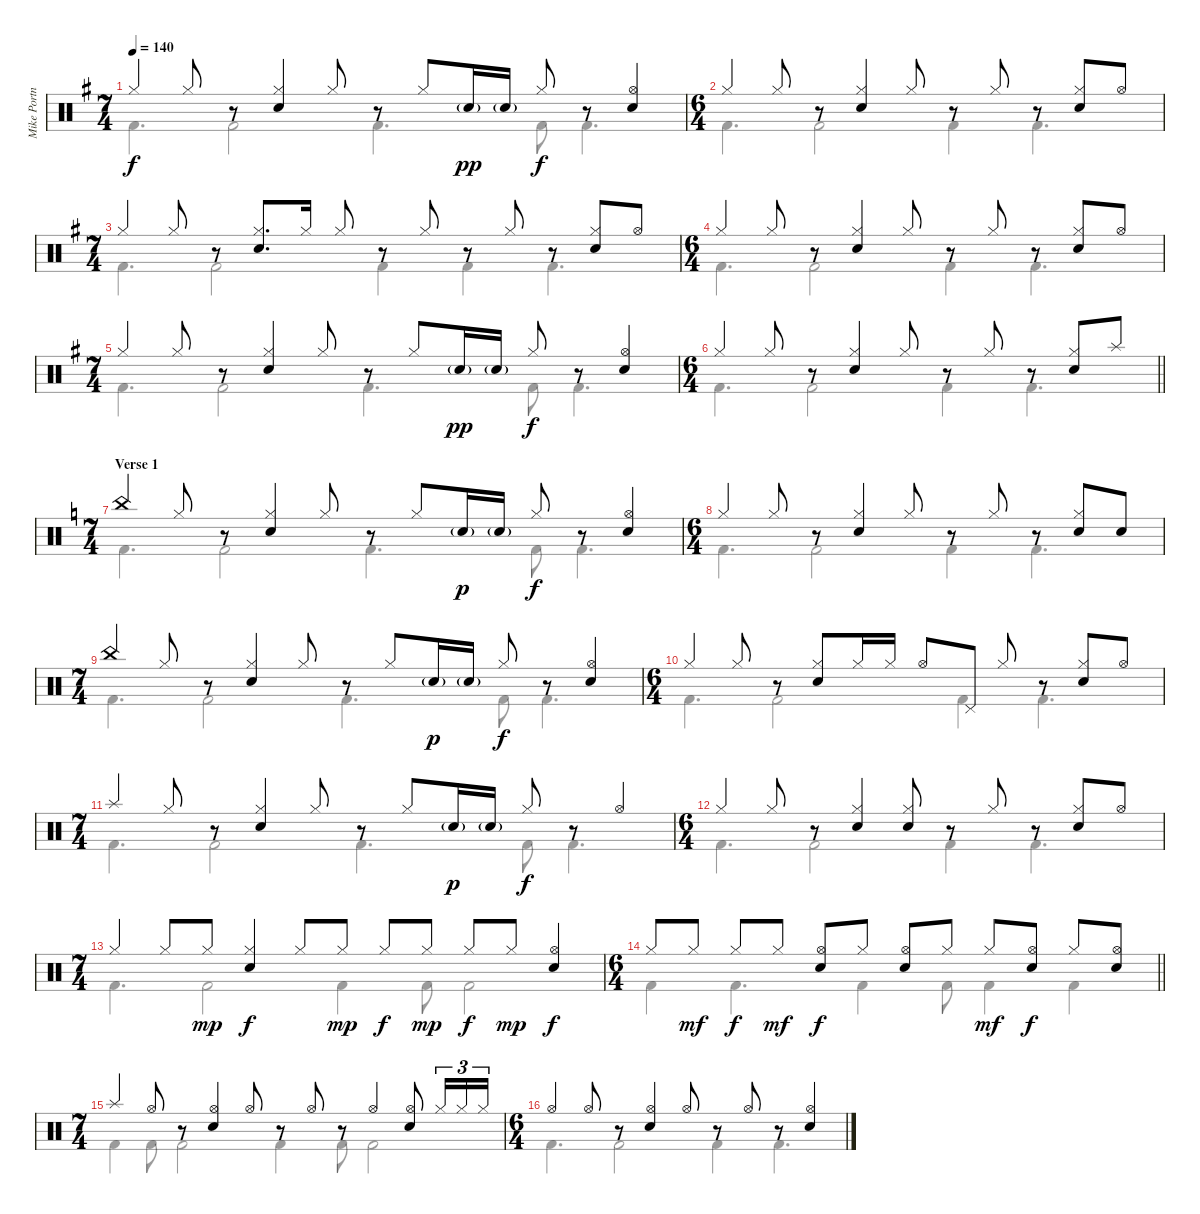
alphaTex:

\track ("Mike Portnoy - Drum" "Mike Portn") {instrument percussion}
\staff {score}
\articulation defaults
\voice
\ts (7 4)
\tempo 140
\clef neutral
\ks g "Hi-Hat (closed)".4{dy f} "Hi-Hat (closed)".8
r.8 ("Hi-Hat (closed)" "Electric Snare (hit)").4 "Hi-Hat (closed)".8 r.8 "Hi-Hat (closed)".8 "Electric Snare (hit)"{g}.16{dy pp} "Electric Snare (hit)"{g}.16 "Hi-Hat (closed)".8{dy f} r.8 ("Hi-Hat (open)" "Electric Snare (hit)").4 |
\ts (6 4)
"Hi-Hat (closed)".4 "Hi-Hat (closed)".8 r.8 ("Hi-Hat (closed)" "Electric Snare (hit)").4 "Hi-Hat (closed)".8 r.8 "Hi-Hat (closed)".8 r.8 ("Hi-Hat (closed)" "Electric Snare (hit)").8 "Hi-Hat (open)".8 |
\ts (7 4)
"Hi-Hat (closed)".4 "Hi-Hat (closed)".8 r.8 ("Hi-Hat (closed)" "Electric Snare (hit)").8{d} "Hi-Hat (closed)".16 "Hi-Hat (closed)".8 r.8 "Hi-Hat (closed)".8 r.8 "Hi-Hat (closed)".8 r.8 ("Hi-Hat (closed)" "Electric Snare (hit)").8 "Hi-Hat (open)".8 |
\ts (6 4)
"Hi-Hat (closed)".4 "Hi-Hat (closed)".8 r.8 ("Hi-Hat (closed)" "Electric Snare (hit)").4 "Hi-Hat (closed)".8 r.8 "Hi-Hat (closed)".8 r.8 ("Hi-Hat (closed)" "Electric Snare (hit)").8 "Hi-Hat (open)".8 |
\ts (7 4)
"Hi-Hat (closed)".4 "Hi-Hat (closed)".8 r.8 ("Hi-Hat (closed)" "Electric Snare (hit)").4 "Hi-Hat (closed)".8 r.8 "Hi-Hat (closed)".8 "Electric Snare (hit)"{g}.16{dy pp} "Electric Snare (hit)"{g}.16 "Hi-Hat (closed)".8{dy f} r.8 ("Hi-Hat (open)" "Electric Snare (hit)").4 |
\ts (6 4)
\barLineRight lightlight "Hi-Hat (closed)".4 "Hi-Hat (closed)".8
r.8 ("Hi-Hat (closed)" "Electric Snare (hit)").4 "Hi-Hat (closed)".8 r.8 "Hi-Hat (closed)".8 r.8 ("Hi-Hat (closed)" "Electric Snare (hit)").8 "Splash (hit)".8 |
\ts (7 4)
\section ("" "Verse 1")
\ks c "China (hit)".4 "Hi-Hat (closed)".8
r.8 ("Hi-Hat (closed)" "Electric Snare (hit)").4 "Hi-Hat (closed)".8 r.8 "Hi-Hat (closed)".8 "Electric Snare (hit)"{g}.16{dy p} "Electric Snare (hit)"{g}.16 "Hi-Hat (closed)".8{dy f} r.8 ("Hi-Hat (open)" "Electric Snare (hit)").4 |
\ts (6 4)
"Hi-Hat (closed)".4 "Hi-Hat (closed)".8 r.8 ("Hi-Hat (closed)" "Electric Snare (hit)").4 "Hi-Hat (closed)".8 r.8 "Hi-Hat (closed)".8 r.8 ("Hi-Hat (closed)" "Electric Snare (hit)").8 "Electric Snare (hit)".8 |
\ts (7 4)
"China (hit)".4 "Hi-Hat (closed)".8 r.8 ("Hi-Hat (closed)" "Electric Snare (hit)").4 "Hi-Hat (closed)".8 r.8 "Hi-Hat (closed)".8 "Electric Snare (hit)"{g}.16{dy p} "Electric Snare (hit)"{g}.16 "Hi-Hat (closed)".8{dy f} r.8 ("Hi-Hat (open)" "Electric Snare (hit)").4 |
\ts (6 4)
"Hi-Hat (closed)".4 "Hi-Hat (closed)".8 r.8 ("Hi-Hat (closed)" "Electric Snare (hit)").8 "Hi-Hat (closed)".16 "Hi-Hat (closed)".16 "Hi-Hat (open)".8 "Pedal Hi-Hat (hit)".8 "Hi-Hat (closed)".8 r.8 ("Hi-Hat (closed)" "Electric Snare (hit)").8 "Hi-Hat (open)".8 |
\ts (7 4)
"Splash (hit)".4 "Hi-Hat (closed)".8 r.8 ("Hi-Hat (closed)" "Electric Snare (hit)").4 "Hi-Hat (closed)".8 r.8 "Hi-Hat (closed)".8 "Electric Snare (hit)"{g}.16{dy p} "Electric Snare (hit)"{g}.16 "Hi-Hat (closed)".8{dy f} r.8 "Hi-Hat (open)".4 |
\ts (6 4)
"Hi-Hat (closed)".4 "Hi-Hat (closed)".8 r.8 ("Hi-Hat (closed)" "Electric Snare (hit)").4 ("Hi-Hat (closed)" "Electric Snare (hit)").8 r.8 "Hi-Hat (closed)".8 r.8 ("Hi-Hat (closed)" "Electric Snare (hit)").8 "Hi-Hat (open)".8 |
\ts (7 4)
"Hi-Hat (closed)".4 "Hi-Hat (closed)".8 "Hi-Hat (closed)".8{dy mp} ("Hi-Hat (closed)" "Electric Snare (hit)").4{dy f} "Hi-Hat (closed)".8 "Hi-Hat (closed)".8{dy mp} "Hi-Hat (closed)".8{dy f} "Hi-Hat (closed)".8{dy mp} "Hi-Hat (closed)".8{dy f} "Hi-Hat (closed)".8{dy mp} ("Hi-Hat (open)" "Electric Snare (hit)").4{dy f} |
\ts (6 4)
\barLineRight lightlight "Hi-Hat (closed)".8 "Hi-Hat (closed)".8{dy mf} "Hi-Hat (closed)".8{dy f} "Hi-Hat (closed)".8{dy mf}
("Hi-Hat (open)" "Electric Snare (hit)").8{dy f} "Hi-Hat (closed)".8 ("Hi-Hat (open)" "Electric Snare (hit)").8 "Hi-Hat (closed)".8 "Hi-Hat (closed)".8{dy mf} ("Hi-Hat (open)" "Electric Snare (hit)").8{dy f} "Hi-Hat (closed)".8 ("Hi-Hat (open)" "Electric Snare (hit)").8 |
\ts (7 4)
"Splash (hit)".4 "Hi-Hat (open)".8 r.8 ("Hi-Hat (open)" "Electric Snare (hit)").4 "Hi-Hat (open)".8 r.8 "Hi-Hat (open)".8 r.8 "Hi-Hat (open)".4 ("Hi-Hat (open)" "Electric Snare (hit)").8 "Hi-Hat (closed)".16{tu (3 2)} "Hi-Hat (closed)".16{tu (3 2)} "Hi-Hat (closed)".16{tu (3 2)} |
\ts (6 4)
"Hi-Hat (open)".4 "Hi-Hat (open)".8 r.8 ("Hi-Hat (open)" "Electric Snare (hit)").4 "Hi-Hat (open)".8 r.8 "Hi-Hat (open)".8 r.8 ("Hi-Hat (open)" "Electric Snare (hit)").4
\voice
\clef neutral
\ottava regular
\simile none
\ks g "Kick (hit) 2".4{d dy f} "Kick (hit) 2".2 "Kick (hit) 2".4{d} "Kick (hit) 2".8 "Kick (hit) 2".4{d}
|
"Kick (hit) 2".4{d} "Kick (hit) 2".2 "Kick (hit) 2".4 "Kick (hit) 2".4{d} |
"Kick (hit) 2".4{d} "Kick (hit) 2".2 "Kick (hit) 2".4 "Kick (hit) 2".4 "Kick (hit) 2".4{d} |
"Kick (hit) 2".4{d} "Kick (hit) 2".2 "Kick (hit) 2".4 "Kick (hit) 2".4{d} |
"Kick (hit) 2".4{d} "Kick (hit) 2".2 "Kick (hit) 2".4{d} "Kick (hit) 2".8 "Kick (hit) 2".4{d} |
\barLineRight lightlight "Kick (hit) 2".4{d} "Kick (hit) 2".2 "Kick (hit) 2".4 "Kick (hit) 2".4{d}
|
\ks c "Kick (hit) 2".4{d} "Kick (hit) 2".2 "Kick (hit) 2".4{d} "Kick (hit) 2".8 "Kick (hit) 2".4{d}
|
"Kick (hit) 2".4{d} "Kick (hit) 2".2 "Kick (hit) 2".4 "Kick (hit) 2".4{d} |
"Kick (hit) 2".4{d} "Kick (hit) 2".2 "Kick (hit) 2".4{d} "Kick (hit) 2".8 "Kick (hit) 2".4{d} |
"Kick (hit) 2".4{d} "Kick (hit) 2".2 "Kick (hit) 2".4 "Kick (hit) 2".4{d} |
"Kick (hit) 2".4{d} "Kick (hit) 2".2 "Kick (hit) 2".4{d} "Kick (hit) 2".8 "Kick (hit) 2".4{d} |
"Kick (hit) 2".4{d} "Kick (hit) 2".2 "Kick (hit) 2".4 "Kick (hit) 2".4{d} |
"Kick (hit) 2".4{d} "Kick (hit) 2".2 "Kick (hit) 2".4 "Kick (hit) 2".8 "Kick (hit) 2".2 |
\barLineRight lightlight "Kick (hit) 2".4 "Kick (hit) 2".4{d} "Kick (hit) 2".4 "Kick (hit) 2".8 "Kick (hit) 2".4 "Kick (hit) 2".4
|
"Kick (hit) 2".4 "Kick (hit) 2".8 "Kick (hit) 2".2 "Kick (hit) 2".4 "Kick (hit) 2".8 "Kick (hit) 2".2 |
"Kick (hit) 2".4{d} "Kick (hit) 2".2 "Kick (hit) 2".4 "Kick (hit) 2".4{d}
